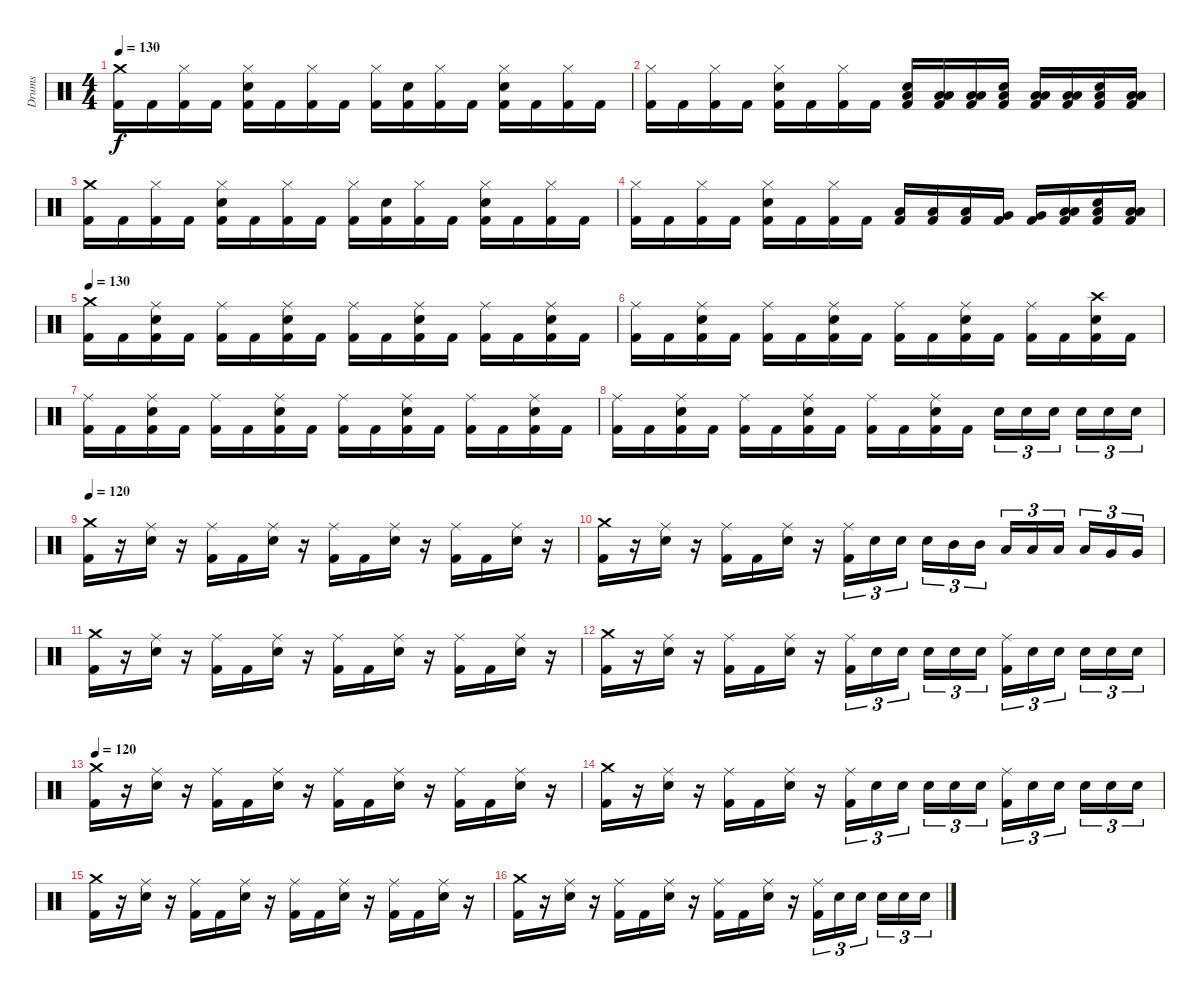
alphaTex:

\track ("Drums" "Drums") {instrument percussion}
\staff {score}
\articulation defaults
\ts (4 4)
\tempo 130
\clef neutral
\ks c
("Crash medium (hit)" "Kick (hit) 2").16{dy f} "Kick (hit) 2".16 ("Hi-Hat (closed)" "Kick (hit) 2").16 "Kick (hit) 2".16 ("Hi-Hat (closed)" "Electric Snare (hit)" "Kick (hit) 2").16 "Kick (hit) 2".16 ("Hi-Hat (closed)" "Kick (hit) 2").16 "Kick (hit) 2".16 ("Hi-Hat (closed)" "Kick (hit) 2").16 ("Electric Snare (hit)" "Kick (hit) 2").16 ("Hi-Hat (closed)" "Kick (hit) 2").16 "Kick (hit) 2".16 ("Hi-Hat (closed)" "Electric Snare (hit)" "Kick (hit) 2").16 "Kick (hit) 2".16 ("Hi-Hat (closed)" "Kick (hit) 2").16 "Kick (hit) 2".16 |
("Hi-Hat (closed)" "Kick (hit) 2").16 "Kick (hit) 2".16 ("Hi-Hat (closed)" "Kick (hit) 2").16 "Kick (hit) 2".16 ("Hi-Hat (closed)" "Electric Snare (hit)" "Kick (hit) 2").16 "Kick (hit) 2".16 ("Hi-Hat (closed)" "Kick (hit) 2").16 "Kick (hit) 2".16 ("Low Floor Tom (hit)" "Electric Snare (hit)" "Kick (hit) 2").16 ("Low Floor Tom (hit)" "Low Floor Tom (hit)" "Kick (hit) 2").16 ("Low Floor Tom (hit)" "Low Floor Tom (hit)" "Kick (hit) 2").16 ("Low Floor Tom (hit)" "Electric Snare (hit)" "Kick (hit) 2").16 ("Low Floor Tom (hit)" "Low Floor Tom (hit)" "Kick (hit) 2").16 ("Low Floor Tom (hit)" "Low Floor Tom (hit)" "Kick (hit) 2").16 ("Low Floor Tom (hit)" "Electric Snare (hit)" "Kick (hit) 2").16 ("Low Floor Tom (hit)" "Low Floor Tom (hit)" "Kick (hit) 2").16 |
("Crash medium (hit)" "Kick (hit) 2").16 "Kick (hit) 2".16 ("Hi-Hat (closed)" "Kick (hit) 2").16 "Kick (hit) 2".16 ("Hi-Hat (closed)" "Electric Snare (hit)" "Kick (hit) 2").16 "Kick (hit) 2".16 ("Hi-Hat (closed)" "Kick (hit) 2").16 "Kick (hit) 2".16 ("Hi-Hat (closed)" "Kick (hit) 2").16 ("Electric Snare (hit)" "Kick (hit) 2").16 ("Hi-Hat (closed)" "Kick (hit) 2").16 "Kick (hit) 2".16 ("Hi-Hat (closed)" "Electric Snare (hit)" "Kick (hit) 2").16 "Kick (hit) 2".16 ("Hi-Hat (closed)" "Kick (hit) 2").16 "Kick (hit) 2".16 |
("Hi-Hat (closed)" "Kick (hit) 2").16 "Kick (hit) 2".16 ("Hi-Hat (closed)" "Kick (hit) 2").16 "Kick (hit) 2".16 ("Hi-Hat (closed)" "Electric Snare (hit)" "Kick (hit) 2").16 "Kick (hit) 2".16 ("Hi-Hat (closed)" "Kick (hit) 2").16 "Kick (hit) 2".16 ("Low Tom (hit)" "Kick (hit) 2").16 ("Low Tom (hit)" "Kick (hit) 2").16 ("Low Floor Tom (hit)" "Kick (hit) 2").16 ("Very Low Tom (hit)" "Kick (hit) 2").16 ("Very Low Tom (hit)" "Kick (hit) 2").16 ("Low Floor Tom (hit)" "Low Floor Tom (hit)" "Kick (hit) 2").16 ("Low Floor Tom (hit)" "Electric Snare (hit)" "Kick (hit) 2").16 ("Low Floor Tom (hit)" "Low Floor Tom (hit)" "Kick (hit) 2").16 |
\tempo 130
("Crash medium (hit)" "Kick (hit) 2").16 "Kick (hit) 2".16 ("Ride (middle)" "Electric Snare (hit)" "Kick (hit) 2").16 "Kick (hit) 2".16 ("Ride (middle)" "Kick (hit) 2").16 "Kick (hit) 2".16 ("Ride (middle)" "Electric Snare (hit)" "Kick (hit) 2").16 "Kick (hit) 2".16 ("Ride (middle)" "Kick (hit) 2").16 "Kick (hit) 2".16 ("Ride (middle)" "Electric Snare (hit)" "Kick (hit) 2").16 "Kick (hit) 2".16 ("Ride (middle)" "Kick (hit) 2").16 "Kick (hit) 2".16 ("Ride (middle)" "Electric Snare (hit)" "Kick (hit) 2").16 "Kick (hit) 2".16 |
("Ride (middle)" "Kick (hit) 2").16 "Kick (hit) 2".16 ("Ride (middle)" "Electric Snare (hit)" "Kick (hit) 2").16 "Kick (hit) 2".16 ("Ride (middle)" "Kick (hit) 2").16 "Kick (hit) 2".16 ("Ride (middle)" "Electric Snare (hit)" "Kick (hit) 2").16 "Kick (hit) 2".16 ("Ride (middle)" "Kick (hit) 2").16 "Kick (hit) 2".16 ("Ride (middle)" "Electric Snare (hit)" "Kick (hit) 2").16 "Kick (hit) 2".16 ("Ride (middle)" "Kick (hit) 2").16 "Kick (hit) 2".16 ("Crash high (hit)" "Electric Snare (hit)" "Kick (hit) 2").16 "Kick (hit) 2".16 |
("Ride (middle)" "Kick (hit) 2").16 "Kick (hit) 2".16 ("Ride (middle)" "Electric Snare (hit)" "Kick (hit) 2").16 "Kick (hit) 2".16 ("Ride (middle)" "Kick (hit) 2").16 "Kick (hit) 2".16 ("Ride (middle)" "Electric Snare (hit)" "Kick (hit) 2").16 "Kick (hit) 2".16 ("Ride (middle)" "Kick (hit) 2").16 "Kick (hit) 2".16 ("Ride (middle)" "Electric Snare (hit)" "Kick (hit) 2").16 "Kick (hit) 2".16 ("Ride (middle)" "Kick (hit) 2").16 "Kick (hit) 2".16 ("Ride (middle)" "Electric Snare (hit)" "Kick (hit) 2").16 "Kick (hit) 2".16 |
("Ride (middle)" "Kick (hit) 2").16 "Kick (hit) 2".16 ("Ride (middle)" "Electric Snare (hit)" "Kick (hit) 2").16 "Kick (hit) 2".16 ("Ride (middle)" "Kick (hit) 2").16 "Kick (hit) 2".16 ("Ride (middle)" "Electric Snare (hit)" "Kick (hit) 2").16 "Kick (hit) 2".16 ("Ride (middle)" "Kick (hit) 2").16 "Kick (hit) 2".16 ("Ride (middle)" "Electric Snare (hit)" "Kick (hit) 2").16 "Kick (hit) 2".16 "Electric Snare (hit)".16{tu (3 2)} "Electric Snare (hit)".16{tu (3 2)} "Electric Snare (hit)".16{tu (3 2) beam splitsecondary} "Electric Snare (hit)".16{tu (3 2)} "Electric Snare (hit)".16{tu (3 2)} "Electric Snare (hit)".16{tu (3 2)} |
\tempo 120
("Crash medium (hit)" "Kick (hit) 2").16 r.16 ("Ride (middle)" "Electric Snare (hit)").16 r.16 ("Ride (middle)" "Kick (hit) 2").16 "Kick (hit) 2".16 ("Ride (middle)" "Electric Snare (hit)").16 r.16 ("Ride (middle)" "Kick (hit) 2").16 "Kick (hit) 2".16 ("Ride (middle)" "Electric Snare (hit)").16 r.16 ("Ride (middle)" "Kick (hit) 2").16 "Kick (hit) 2".16 ("Ride (middle)" "Electric Snare (hit)").16 r.16 |
("Crash medium (hit)" "Kick (hit) 2").16 r.16 ("Ride (middle)" "Electric Snare (hit)").16 r.16 ("Ride (middle)" "Kick (hit) 2").16 "Kick (hit) 2".16 ("Ride (middle)" "Electric Snare (hit)").16 r.16 ("Ride (middle)" "Kick (hit) 2").16{tu (3 2)} "Electric Snare (hit)".16{tu (3 2)} "Electric Snare (hit)".16{tu (3 2) beam splitsecondary} "Electric Snare (hit)".16{tu (3 2)} "Mid Tom (hit)".16{tu (3 2)} "Mid Tom (hit)".16{tu (3 2)} "Low Tom (hit)".16{tu (3 2)} "Low Tom (hit)".16{tu (3 2)} "Low Tom (hit)".16{tu (3 2) beam splitsecondary} "Low Tom (hit)".16{tu (3 2)} "Very Low Tom (hit)".16{tu (3 2)} "Very Low Tom (hit)".16{tu (3 2)} |
("Crash medium (hit)" "Kick (hit) 2").16 r.16 ("Ride (middle)" "Electric Snare (hit)").16 r.16 ("Ride (middle)" "Kick (hit) 2").16 "Kick (hit) 2".16 ("Ride (middle)" "Electric Snare (hit)").16 r.16 ("Ride (middle)" "Kick (hit) 2").16 "Kick (hit) 2".16 ("Ride (middle)" "Electric Snare (hit)").16 r.16 ("Ride (middle)" "Kick (hit) 2").16 "Kick (hit) 2".16 ("Ride (middle)" "Electric Snare (hit)").16 r.16 |
("Crash medium (hit)" "Kick (hit) 2").16 r.16 ("Ride (middle)" "Electric Snare (hit)").16 r.16 ("Ride (middle)" "Kick (hit) 2").16 "Kick (hit) 2".16 ("Ride (middle)" "Electric Snare (hit)").16 r.16 ("Ride (middle)" "Kick (hit) 2").16{tu (3 2)} "Electric Snare (hit)".16{tu (3 2)} "Electric Snare (hit)".16{tu (3 2) beam splitsecondary} "Electric Snare (hit)".16{tu (3 2)} "Electric Snare (hit)".16{tu (3 2)} "Electric Snare (hit)".16{tu (3 2)} ("Ride (middle)" "Kick (hit) 2").16{tu (3 2)} "Electric Snare (hit)".16{tu (3 2)} "Electric Snare (hit)".16{tu (3 2) beam splitsecondary} "Electric Snare (hit)".16{tu (3 2)} "Electric Snare (hit)".16{tu (3 2)} "Electric Snare (hit)".16{tu (3 2)} |
\tempo 120
("Crash medium (hit)" "Kick (hit) 2").16 r.16 ("Ride (middle)" "Electric Snare (hit)").16 r.16 ("Ride (middle)" "Kick (hit) 2").16 "Kick (hit) 2".16 ("Ride (middle)" "Electric Snare (hit)").16 r.16 ("Ride (middle)" "Kick (hit) 2").16 "Kick (hit) 2".16 ("Ride (middle)" "Electric Snare (hit)").16 r.16 ("Ride (middle)" "Kick (hit) 2").16 "Kick (hit) 2".16 ("Ride (middle)" "Electric Snare (hit)").16 r.16 |
("Crash medium (hit)" "Kick (hit) 2").16 r.16 ("Ride (middle)" "Electric Snare (hit)").16 r.16 ("Ride (middle)" "Kick (hit) 2").16 "Kick (hit) 2".16 ("Ride (middle)" "Electric Snare (hit)").16 r.16 ("Ride (middle)" "Kick (hit) 2").16{tu (3 2)} "Electric Snare (hit)".16{tu (3 2)} "Electric Snare (hit)".16{tu (3 2) beam splitsecondary} "Electric Snare (hit)".16{tu (3 2)} "Electric Snare (hit)".16{tu (3 2)} "Electric Snare (hit)".16{tu (3 2)} ("Ride (middle)" "Kick (hit) 2").16{tu (3 2)} "Electric Snare (hit)".16{tu (3 2)} "Electric Snare (hit)".16{tu (3 2) beam splitsecondary} "Electric Snare (hit)".16{tu (3 2)} "Electric Snare (hit)".16{tu (3 2)} "Electric Snare (hit)".16{tu (3 2)} |
("Crash medium (hit)" "Kick (hit) 2").16 r.16 ("Ride (middle)" "Electric Snare (hit)").16 r.16 ("Ride (middle)" "Kick (hit) 2").16 "Kick (hit) 2".16 ("Ride (middle)" "Electric Snare (hit)").16 r.16 ("Ride (middle)" "Kick (hit) 2").16 "Kick (hit) 2".16 ("Ride (middle)" "Electric Snare (hit)").16 r.16 ("Ride (middle)" "Kick (hit) 2").16 "Kick (hit) 2".16 ("Ride (middle)" "Electric Snare (hit)").16 r.16 |
("Crash medium (hit)" "Kick (hit) 2").16 r.16 ("Ride (middle)" "Electric Snare (hit)").16 r.16 ("Ride (middle)" "Kick (hit) 2").16 "Kick (hit) 2".16 ("Ride (middle)" "Electric Snare (hit)").16 r.16 ("Ride (middle)" "Kick (hit) 2").16 "Kick (hit) 2".16 ("Ride (middle)" "Electric Snare (hit)").16 r.16 ("Ride (middle)" "Kick (hit) 2").16{tu (3 2)} "Electric Snare (hit)".16{tu (3 2)} "Electric Snare (hit)".16{tu (3 2) beam splitsecondary} "Electric Snare (hit)".16{tu (3 2)} "Electric Snare (hit)".16{tu (3 2)} "Electric Snare (hit)".16{tu (3 2)}
